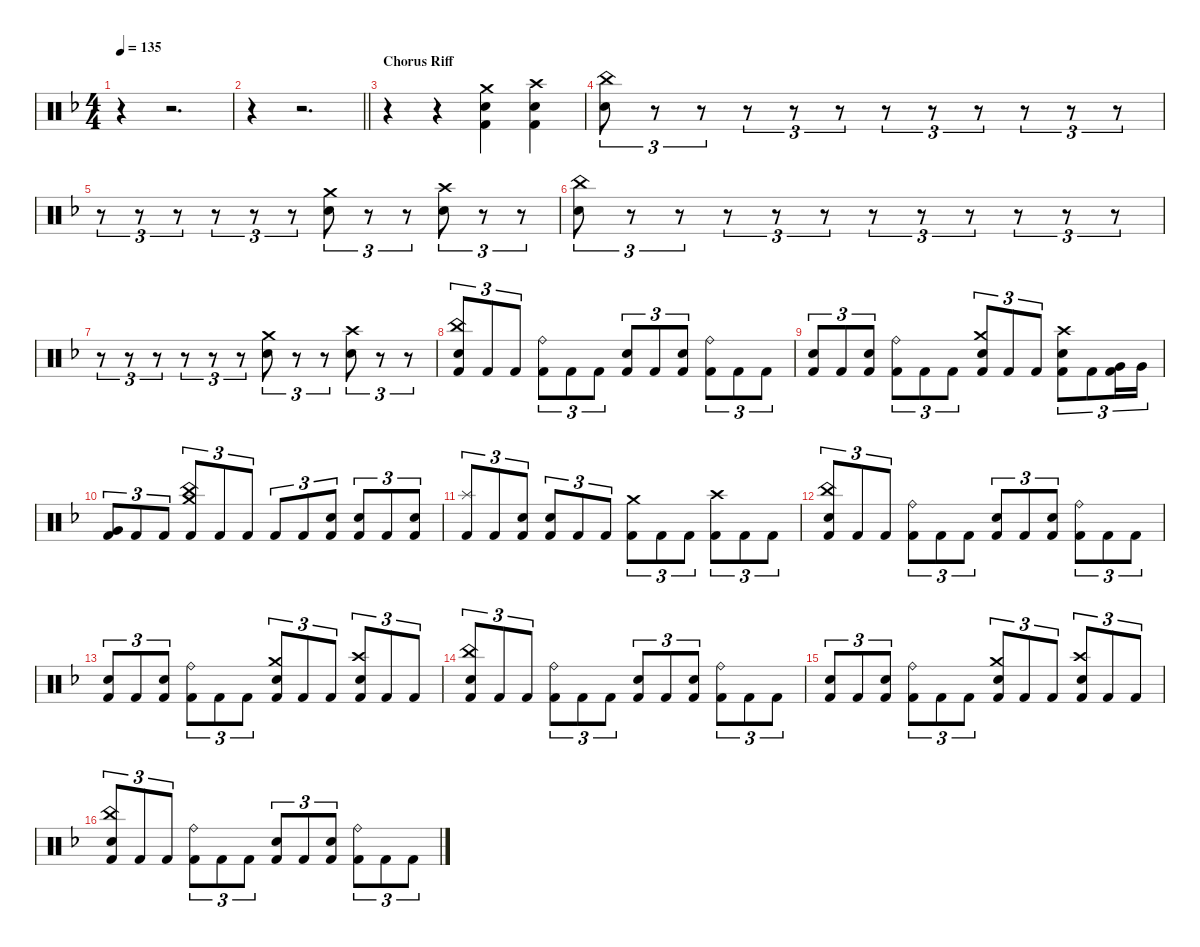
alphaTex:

\defaultSystemsLayout 4
\hideDynamics
\bracketExtendMode nobrackets
\singleTrackTrackNamePolicy hidden
\multiTrackTrackNamePolicy hidden
\firstSystemTrackNameMode fullname
\firstSystemTrackNameOrientation horizontal
\otherSystemsTrackNameOrientation horizontal
\track ("Drums" "drm.") {instrument percussion}
\staff {score}
\articulation defaults
\ts (4 4)
\tempo 135
\clef neutral
\ks dminor
r.4{dy f beam Down} r.2{d beam Down} |
\barLineRight lightlight
r.4{beam Down} r.2{d beam Down} |
\section ("" "Chorus Riff")
r.4{beam Down} r.4{beam Down} ("Crash medium (hit)"{acc forcenatural} "Snare (hit) 2"{acc forcenatural} "Kick (hit) 2"{acc forcenatural}).4{beam Down} ("Crash high (hit)"{acc forcenatural} "Snare (hit) 2"{acc forcenatural} "Kick (hit) 2"{acc forcenatural}).4{beam Down} |
("China (hit)"{acc forcenatural} "Snare (hit) 2"{acc forcenatural}).8{tu (3 2) beam Down} r.8{tu (3 2) beam Down} r.8{tu (3 2) beam Down} r.8{tu (3 2) beam Down} r.8{tu (3 2) beam Down} r.8{tu (3 2) beam Down} r.8{tu (3 2) beam Down} r.8{tu (3 2) beam Down} r.8{tu (3 2) beam Down} r.8{tu (3 2) beam Down} r.8{tu (3 2) beam Down} r.8{tu (3 2) beam Down} |
r.8{tu (3 2) beam Down} r.8{tu (3 2) beam Down} r.8{tu (3 2) beam Down} r.8{tu (3 2) beam Down} r.8{tu (3 2) beam Down} r.8{tu (3 2) beam Down} ("Crash medium (hit)"{acc forcenatural} "Snare (hit) 2"{acc forcenatural}).8{tu (3 2) beam Down} r.8{tu (3 2) beam Down} r.8{tu (3 2) beam Down} ("Crash high (hit)"{acc forcenatural} "Snare (hit) 2"{acc forcenatural}).8{tu (3 2) beam Down} r.8{tu (3 2) beam Down} r.8{tu (3 2) beam Down} |
("China (hit)"{acc forcenatural} "Snare (hit) 2"{acc forcenatural}).8{tu (3 2) beam Down} r.8{tu (3 2) beam Down} r.8{tu (3 2) beam Down} r.8{tu (3 2) beam Down} r.8{tu (3 2) beam Down} r.8{tu (3 2) beam Down} r.8{tu (3 2) beam Down} r.8{tu (3 2) beam Down} r.8{tu (3 2) beam Down} r.8{tu (3 2) beam Down} r.8{tu (3 2) beam Down} r.8{tu (3 2) beam Down} |
r.8{tu (3 2) beam Down} r.8{tu (3 2) beam Down} r.8{tu (3 2) beam Down} r.8{tu (3 2) beam Down} r.8{tu (3 2) beam Down} r.8{tu (3 2) beam Down} ("Crash medium (hit)"{acc forcenatural} "Snare (hit) 2"{acc forcenatural}).8{tu (3 2) beam Down} r.8{tu (3 2) beam Down} r.8{tu (3 2) beam Down} ("Crash high (hit)"{acc forcenatural} "Snare (hit) 2"{acc forcenatural}).8{tu (3 2) beam Down} r.8{tu (3 2) beam Down} r.8{tu (3 2) beam Down} |
("China (hit)"{acc forcenatural} "Snare (hit) 2"{acc forcenatural} "Kick (hit) 2"{acc forcenatural}).8{tu (3 2) beam Up} "Kick (hit) 2"{acc forcenatural}.8{tu (3 2) beam Up} "Kick (hit) 2"{acc forcenatural}.8{tu (3 2) beam Up} ("Ride (bell)"{acc forcenatural} "Kick (hit) 2"{acc forcenatural}).8{tu (3 2) beam Down} "Kick (hit) 2"{acc forcenatural}.8{tu (3 2) beam Down} "Kick (hit) 2"{acc forcenatural}.8{tu (3 2) beam Down} ("Snare (hit) 2"{acc forcenatural} "Kick (hit) 2"{acc forcenatural}).8{tu (3 2) beam Up} "Kick (hit) 2"{acc forcenatural}.8{tu (3 2) beam Up} ("Snare (hit) 2"{acc forcenatural} "Kick (hit) 2"{acc forcenatural}).8{tu (3 2) beam Up} ("Ride (bell)"{acc forcenatural} "Kick (hit) 2"{acc forcenatural}).8{tu (3 2) beam Down} "Kick (hit) 2"{acc forcenatural}.8{tu (3 2) beam Down} "Kick (hit) 2"{acc forcenatural}.8{tu (3 2) beam Down} |
("Snare (hit) 2"{acc forcenatural} "Kick (hit) 2"{acc forcenatural}).8{tu (3 2) beam Up} "Kick (hit) 2"{acc forcenatural}.8{tu (3 2) beam Up} ("Snare (hit) 2"{acc forcenatural} "Kick (hit) 2"{acc forcenatural}).8{tu (3 2) beam Up} ("Ride (bell)"{acc forcenatural} "Kick (hit) 2"{acc forcenatural}).8{tu (3 2) beam Down} "Kick (hit) 2"{acc forcenatural}.8{tu (3 2) beam Down} "Kick (hit) 2"{acc forcenatural}.8{tu (3 2) beam Down} ("Crash medium (hit)"{acc forcenatural} "Snare (hit) 2"{acc forcenatural} "Kick (hit) 2"{acc forcenatural}).8{tu (3 2) beam Up} "Kick (hit) 2"{acc forcenatural}.8{tu (3 2) beam Up} "Kick (hit) 2"{acc forcenatural}.8{tu (3 2) beam Up} ("Crash high (hit)"{acc forcenatural} "Snare (hit) 2"{acc forcenatural} "Kick (hit) 2"{acc forcenatural}).8{tu (3 2) beam Down} "Kick (hit) 2"{acc forcenatural}.8{tu (3 2) beam Down} ("Very Low Tom (hit)"{acc forcenatural} "Kick (hit) 2"{acc forcenatural}).16{tu (3 2) beam Down} "Very Low Tom (hit)"{acc forcenatural}.16{tu (3 2) beam Down} |
("Very Low Tom (hit)"{acc forcenatural} "Kick (hit) 2"{acc forcenatural}).8{tu (3 2) beam Up} "Kick (hit) 2"{acc forcenatural}.8{tu (3 2) beam Up} "Kick (hit) 2"{acc forcenatural}.8{tu (3 2) beam Up} ("China (hit)"{acc forcenatural} "Crash medium (hit)"{acc forcenatural} "Kick (hit) 2"{acc forcenatural}).8{tu (3 2) beam Up} "Kick (hit) 2"{acc forcenatural}.8{tu (3 2) beam Up} "Kick (hit) 2"{acc forcenatural}.8{tu (3 2) beam Up} "Kick (hit) 2"{acc forcenatural}.8{tu (3 2) beam Up} "Kick (hit) 2"{acc forcenatural}.8{tu (3 2) beam Up} ("Snare (hit) 2"{acc forcenatural} "Kick (hit) 2"{acc forcenatural}).8{tu (3 2) beam Up} ("Snare (hit) 2"{acc forcenatural} "Kick (hit) 2"{acc forcenatural}).8{tu (3 2) beam Up} "Kick (hit) 2"{acc forcenatural}.8{tu (3 2) beam Up} ("Snare (hit) 2"{acc forcenatural} "Kick (hit) 2"{acc forcenatural}).8{tu (3 2) beam Up} |
("Splash (hit)"{acc forcenatural} "Kick (hit) 2"{acc forcenatural}).8{tu (3 2) beam Up} "Kick (hit) 2"{acc forcenatural}.8{tu (3 2) beam Up} ("Snare (hit) 2"{acc forcenatural} "Kick (hit) 2"{acc forcenatural}).8{tu (3 2) beam Up} ("Snare (hit) 2"{acc forcenatural} "Kick (hit) 2"{acc forcenatural}).8{tu (3 2) beam Up} "Kick (hit) 2"{acc forcenatural}.8{tu (3 2) beam Up} "Kick (hit) 2"{acc forcenatural}.8{tu (3 2) beam Up} ("Crash medium (hit)"{acc forcenatural} "Kick (hit) 2"{acc forcenatural}).8{tu (3 2) beam Down} "Kick (hit) 2"{acc forcenatural}.8{tu (3 2) beam Down} "Kick (hit) 2"{acc forcenatural}.8{tu (3 2) beam Down} ("Crash high (hit)"{acc forcenatural} "Kick (hit) 2"{acc forcenatural}).8{tu (3 2) beam Down} "Kick (hit) 2"{acc forcenatural}.8{tu (3 2) beam Down} "Kick (hit) 2"{acc forcenatural}.8{tu (3 2) beam Down} |
("China (hit)"{acc forcenatural} "Snare (hit) 2"{acc forcenatural} "Kick (hit) 2"{acc forcenatural}).8{tu (3 2) beam Up} "Kick (hit) 2"{acc forcenatural}.8{tu (3 2) beam Up} "Kick (hit) 2"{acc forcenatural}.8{tu (3 2) beam Up} ("Ride (bell)"{acc forcenatural} "Kick (hit) 2"{acc forcenatural}).8{tu (3 2) beam Down} "Kick (hit) 2"{acc forcenatural}.8{tu (3 2) beam Down} "Kick (hit) 2"{acc forcenatural}.8{tu (3 2) beam Down} ("Snare (hit) 2"{acc forcenatural} "Kick (hit) 2"{acc forcenatural}).8{tu (3 2) beam Up} "Kick (hit) 2"{acc forcenatural}.8{tu (3 2) beam Up} ("Snare (hit) 2"{acc forcenatural} "Kick (hit) 2"{acc forcenatural}).8{tu (3 2) beam Up} ("Ride (bell)"{acc forcenatural} "Kick (hit) 2"{acc forcenatural}).8{tu (3 2) beam Down} "Kick (hit) 2"{acc forcenatural}.8{tu (3 2) beam Down} "Kick (hit) 2"{acc forcenatural}.8{tu (3 2) beam Down} |
("Snare (hit) 2"{acc forcenatural} "Kick (hit) 2"{acc forcenatural}).8{tu (3 2) beam Up} "Kick (hit) 2"{acc forcenatural}.8{tu (3 2) beam Up} ("Snare (hit) 2"{acc forcenatural} "Kick (hit) 2"{acc forcenatural}).8{tu (3 2) beam Up} ("Ride (bell)"{acc forcenatural} "Kick (hit) 2"{acc forcenatural}).8{tu (3 2) beam Down} "Kick (hit) 2"{acc forcenatural}.8{tu (3 2) beam Down} "Kick (hit) 2"{acc forcenatural}.8{tu (3 2) beam Down} ("Crash medium (hit)"{acc forcenatural} "Snare (hit) 2"{acc forcenatural} "Kick (hit) 2"{acc forcenatural}).8{tu (3 2) beam Up} "Kick (hit) 2"{acc forcenatural}.8{tu (3 2) beam Up} "Kick (hit) 2"{acc forcenatural}.8{tu (3 2) beam Up} ("Crash high (hit)"{acc forcenatural} "Snare (hit) 2"{acc forcenatural} "Kick (hit) 2"{acc forcenatural}).8{tu (3 2) beam Up} "Kick (hit) 2"{acc forcenatural}.8{tu (3 2) beam Up} "Kick (hit) 2"{acc forcenatural}.8{tu (3 2) beam Up} |
("China (hit)"{acc forcenatural} "Snare (hit) 2"{acc forcenatural} "Kick (hit) 2"{acc forcenatural}).8{tu (3 2) beam Up} "Kick (hit) 2"{acc forcenatural}.8{tu (3 2) beam Up} "Kick (hit) 2"{acc forcenatural}.8{tu (3 2) beam Up} ("Ride (bell)"{acc forcenatural} "Kick (hit) 2"{acc forcenatural}).8{tu (3 2) beam Down} "Kick (hit) 2"{acc forcenatural}.8{tu (3 2) beam Down} "Kick (hit) 2"{acc forcenatural}.8{tu (3 2) beam Down} ("Snare (hit) 2"{acc forcenatural} "Kick (hit) 2"{acc forcenatural}).8{tu (3 2) beam Up} "Kick (hit) 2"{acc forcenatural}.8{tu (3 2) beam Up} ("Snare (hit) 2"{acc forcenatural} "Kick (hit) 2"{acc forcenatural}).8{tu (3 2) beam Up} ("Ride (bell)"{acc forcenatural} "Kick (hit) 2"{acc forcenatural}).8{tu (3 2) beam Down} "Kick (hit) 2"{acc forcenatural}.8{tu (3 2) beam Down} "Kick (hit) 2"{acc forcenatural}.8{tu (3 2) beam Down} |
("Snare (hit) 2"{acc forcenatural} "Kick (hit) 2"{acc forcenatural}).8{tu (3 2) beam Up} "Kick (hit) 2"{acc forcenatural}.8{tu (3 2) beam Up} ("Snare (hit) 2"{acc forcenatural} "Kick (hit) 2"{acc forcenatural}).8{tu (3 2) beam Up} ("Ride (bell)"{acc forcenatural} "Kick (hit) 2"{acc forcenatural}).8{tu (3 2) beam Down} "Kick (hit) 2"{acc forcenatural}.8{tu (3 2) beam Down} "Kick (hit) 2"{acc forcenatural}.8{tu (3 2) beam Down} ("Crash medium (hit)"{acc forcenatural} "Snare (hit) 2"{acc forcenatural} "Kick (hit) 2"{acc forcenatural}).8{tu (3 2) beam Up} "Kick (hit) 2"{acc forcenatural}.8{tu (3 2) beam Up} "Kick (hit) 2"{acc forcenatural}.8{tu (3 2) beam Up} ("Crash high (hit)"{acc forcenatural} "Snare (hit) 2"{acc forcenatural} "Kick (hit) 2"{acc forcenatural}).8{tu (3 2) beam Up} "Kick (hit) 2"{acc forcenatural}.8{tu (3 2) beam Up} "Kick (hit) 2"{acc forcenatural}.8{tu (3 2) beam Up} |
("China (hit)"{acc forcenatural} "Snare (hit) 2"{acc forcenatural} "Kick (hit) 2"{acc forcenatural}).8{tu (3 2) beam Up} "Kick (hit) 2"{acc forcenatural}.8{tu (3 2) beam Up} "Kick (hit) 2"{acc forcenatural}.8{tu (3 2) beam Up} ("Ride (bell)"{acc forcenatural} "Kick (hit) 2"{acc forcenatural}).8{tu (3 2) beam Down} "Kick (hit) 2"{acc forcenatural}.8{tu (3 2) beam Down} "Kick (hit) 2"{acc forcenatural}.8{tu (3 2) beam Down} ("Snare (hit) 2"{acc forcenatural} "Kick (hit) 2"{acc forcenatural}).8{tu (3 2) beam Up} "Kick (hit) 2"{acc forcenatural}.8{tu (3 2) beam Up} ("Snare (hit) 2"{acc forcenatural} "Kick (hit) 2"{acc forcenatural}).8{tu (3 2) beam Up} ("Ride (bell)"{acc forcenatural} "Kick (hit) 2"{acc forcenatural}).8{tu (3 2) beam Down} "Kick (hit) 2"{acc forcenatural}.8{tu (3 2) beam Down} "Kick (hit) 2"{acc forcenatural}.8{tu (3 2) beam Down}
